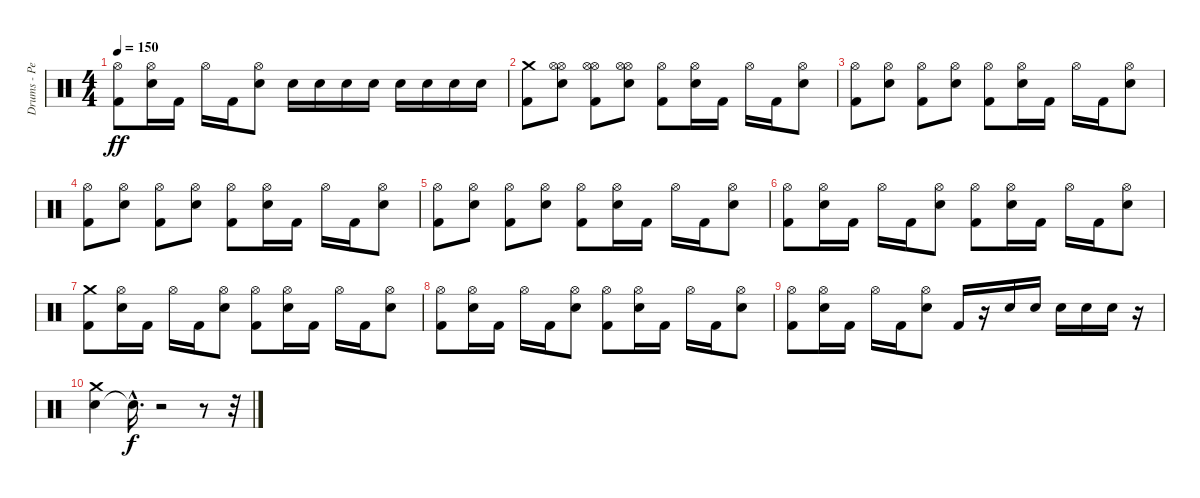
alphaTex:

\track ("Drums - Pete Finestone" "Drums - Pe") {instrument percussion}
\staff {score}
\articulation defaults
\ts (4 4)
\tempo 150
\clef neutral
\ks c
("Hi-Hat (open)" "Kick (hit) 2").8{dy ff} ("Hi-Hat (open)" "Electric Snare (hit)").16 "Kick (hit) 2".16 "Hi-Hat (open)".16 "Kick (hit) 2".16 ("Hi-Hat (open)" "Electric Snare (hit)").8 "Electric Snare (hit)".16 "Electric Snare (hit)".16 "Electric Snare (hit)".16 "Electric Snare (hit)".16 "Electric Snare (hit)".16 "Electric Snare (hit)".16 "Electric Snare (hit)".16 "Electric Snare (hit)".16 |
("Kick (hit) 2" "Crash medium (hit)").8 ("Hi-Hat (open)" "Electric Snare (hit)" "Hi-Hat (open)").8 ("Hi-Hat (open)" "Kick (hit) 2" "Hi-Hat (open)").8 ("Hi-Hat (open)" "Electric Snare (hit)" "Hi-Hat (open)").8 ("Kick (hit) 2" "Hi-Hat (open)").8 ("Electric Snare (hit)" "Hi-Hat (open)").16 "Kick (hit) 2".16 "Hi-Hat (open)".16 "Kick (hit) 2".16 ("Electric Snare (hit)" "Hi-Hat (open)").8 |
("Kick (hit) 2" "Hi-Hat (open)").8 ("Electric Snare (hit)" "Hi-Hat (open)").8 ("Kick (hit) 2" "Hi-Hat (open)").8 ("Electric Snare (hit)" "Hi-Hat (open)").8 ("Kick (hit) 2" "Hi-Hat (open)").8 ("Electric Snare (hit)" "Hi-Hat (open)").16 "Kick (hit) 2".16 "Hi-Hat (open)".16 "Kick (hit) 2".16 ("Electric Snare (hit)" "Hi-Hat (open)").8 |
("Kick (hit) 2" "Hi-Hat (open)").8 ("Electric Snare (hit)" "Hi-Hat (open)").8 ("Kick (hit) 2" "Hi-Hat (open)").8 ("Electric Snare (hit)" "Hi-Hat (open)").8 ("Kick (hit) 2" "Hi-Hat (open)").8 ("Electric Snare (hit)" "Hi-Hat (open)").16 "Kick (hit) 2".16 "Hi-Hat (open)".16 "Kick (hit) 2".16 ("Electric Snare (hit)" "Hi-Hat (open)").8 |
("Kick (hit) 2" "Hi-Hat (open)").8 ("Electric Snare (hit)" "Hi-Hat (open)").8 ("Kick (hit) 2" "Hi-Hat (open)").8 ("Electric Snare (hit)" "Hi-Hat (open)").8 ("Kick (hit) 2" "Hi-Hat (open)").8 ("Electric Snare (hit)" "Hi-Hat (open)").16 "Kick (hit) 2".16 "Hi-Hat (open)".16 "Kick (hit) 2".16 ("Electric Snare (hit)" "Hi-Hat (open)").8 |
("Kick (hit) 2" "Hi-Hat (open)").8 ("Electric Snare (hit)" "Hi-Hat (open)").16 "Kick (hit) 2".16 "Hi-Hat (open)".16 "Kick (hit) 2".16 ("Electric Snare (hit)" "Hi-Hat (open)").8 ("Kick (hit) 2" "Hi-Hat (open)").8 ("Electric Snare (hit)" "Hi-Hat (open)").16 "Kick (hit) 2".16 "Hi-Hat (open)".16 "Kick (hit) 2".16 ("Electric Snare (hit)" "Hi-Hat (open)").8 |
("Kick (hit) 2" "Crash medium (hit)").8 ("Electric Snare (hit)" "Hi-Hat (open)").16 "Kick (hit) 2".16 "Hi-Hat (open)".16 "Kick (hit) 2".16 ("Electric Snare (hit)" "Hi-Hat (open)").8 ("Kick (hit) 2" "Hi-Hat (open)").8 ("Electric Snare (hit)" "Hi-Hat (open)").16 "Kick (hit) 2".16 "Hi-Hat (open)".16 "Kick (hit) 2".16 ("Electric Snare (hit)" "Hi-Hat (open)").8 |
("Kick (hit) 2" "Hi-Hat (open)").8 ("Electric Snare (hit)" "Hi-Hat (open)").16 "Kick (hit) 2".16 "Hi-Hat (open)".16 "Kick (hit) 2".16 ("Electric Snare (hit)" "Hi-Hat (open)").8 ("Kick (hit) 2" "Hi-Hat (open)").8 ("Electric Snare (hit)" "Hi-Hat (open)").16 "Kick (hit) 2".16 "Hi-Hat (open)".16 "Kick (hit) 2".16 ("Electric Snare (hit)" "Hi-Hat (open)").8 |
("Kick (hit) 2" "Hi-Hat (open)").8 ("Electric Snare (hit)" "Hi-Hat (open)").16 "Kick (hit) 2".16 "Hi-Hat (open)".16 "Kick (hit) 2".16 ("Electric Snare (hit)" "Hi-Hat (open)").8 "Kick (hit) 2".16 r.16 "Electric Snare (hit)".16 "Electric Snare (hit)".16 "Electric Snare (hit)".16 "Electric Snare (hit)".16 "Electric Snare (hit)".16 r.16 |
("Electric Snare (hit)" "Crash medium (hit)").4 "Snare (hit)"{hac t}.16{d dy f} r.2 r.8 r.32
